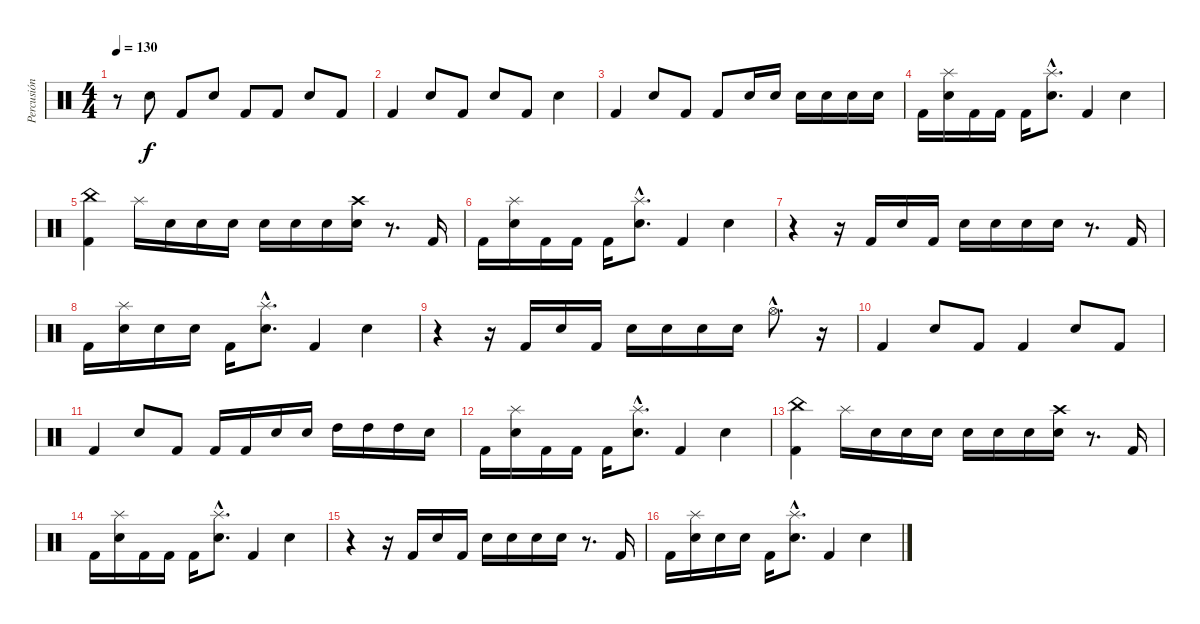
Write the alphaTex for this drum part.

\track ("Percusión" "Percusión") {instrument percussion}
\staff {score}
\articulation defaults
\ts (4 4)
\tempo 130
\clef neutral
\ks c
r.8{dy f} "Electric Snare (hit)".8 "Kick (hit) 2".8 "Electric Snare (hit)".8 "Kick (hit) 2".8 "Kick (hit) 2".8 "Electric Snare (hit)".8 "Kick (hit) 2".8 |
"Kick (hit) 2".4 "Electric Snare (hit)".8 "Kick (hit) 2".8 "Electric Snare (hit)".8 "Kick (hit) 2".8 "Electric Snare (hit)".4 |
"Kick (hit) 2".4 "Electric Snare (hit)".8 "Kick (hit) 2".8 "Kick (hit) 2".8 "Electric Snare (hit)".16 "Electric Snare (hit)".16 "Electric Snare (hit)".16 "Electric Snare (hit)".16 "Electric Snare (hit)".16 "Electric Snare (hit)".16 |
"Kick (hit) 2".16 ("Splash (hit)" "Electric Snare (hit)").16 "Kick (hit) 2".16 "Kick (hit) 2".16 "Kick (hit) 2".16 ("Splash (hit)"{hac} "Electric Snare (hit)"{hac}).8{d} "Kick (hit) 2".4 "Electric Snare (hit)".4 |
("China (hit)" "Kick (hit) 2").4 "Splash (hit)".16 "Electric Snare (hit)".16 "Electric Snare (hit)".16 "Electric Snare (hit)".16 "Electric Snare (hit)".16 "Electric Snare (hit)".16 "Electric Snare (hit)".16 ("Crash high (hit)" "Electric Snare (hit)").16 r.8{d} "Kick (hit) 2".16 |
"Kick (hit) 2".16 ("Splash (hit)" "Electric Snare (hit)").16 "Kick (hit) 2".16 "Kick (hit) 2".16 "Kick (hit) 2".16 ("Splash (hit)"{hac} "Electric Snare (hit)"{hac}).8{d} "Kick (hit) 2".4 "Electric Snare (hit)".4 |
r.4 r.16 "Kick (hit) 2".16 "Electric Snare (hit)".16 "Kick (hit) 2".16 "Electric Snare (hit)".16 "Electric Snare (hit)".16 "Electric Snare (hit)".16 "Electric Snare (hit)".16 r.8{d} "Kick (hit) 2".16 |
"Kick (hit) 2".16 ("Splash (hit)" "Electric Snare (hit)").16 "Electric Snare (hit)".16 "Electric Snare (hit)".16 "Kick (hit) 2".16 ("Splash (hit)"{hac} "Electric Snare (hit)"{hac}).8{d} "Kick (hit) 2".4 "Electric Snare (hit)".4 |
r.4 r.16 "Kick (hit) 2".16 "Electric Snare (hit)".16 "Kick (hit) 2".16 "Electric Snare (hit)".16 "Electric Snare (hit)".16 "Electric Snare (hit)".16 "Electric Snare (hit)".16 "Hi-Hat (open)"{hac}.8{d} r.16 |
"Kick (hit) 2".4 "Electric Snare (hit)".8 "Kick (hit) 2".8 "Kick (hit) 2".4 "Electric Snare (hit)".8 "Kick (hit) 2".8 |
"Kick (hit) 2".4 "Electric Snare (hit)".8 "Kick (hit) 2".8 "Kick (hit) 2".16 "Kick (hit) 2".16 "Electric Snare (hit)".16 "Electric Snare (hit)".16 "High Tom (hit)".16 "High Tom (hit)".16 "High Tom (hit)".16 "Electric Snare (hit)".16 |
"Kick (hit) 2".16 ("Splash (hit)" "Electric Snare (hit)").16 "Kick (hit) 2".16 "Kick (hit) 2".16 "Kick (hit) 2".16 ("Splash (hit)"{hac} "Electric Snare (hit)"{hac}).8{d} "Kick (hit) 2".4 "Electric Snare (hit)".4 |
("China (hit)" "Kick (hit) 2").4 "Splash (hit)".16 "Electric Snare (hit)".16 "Electric Snare (hit)".16 "Electric Snare (hit)".16 "Electric Snare (hit)".16 "Electric Snare (hit)".16 "Electric Snare (hit)".16 ("Crash high (hit)" "Electric Snare (hit)").16 r.8{d} "Kick (hit) 2".16 |
"Kick (hit) 2".16 ("Splash (hit)" "Electric Snare (hit)").16 "Kick (hit) 2".16 "Kick (hit) 2".16 "Kick (hit) 2".16 ("Splash (hit)"{hac} "Electric Snare (hit)"{hac}).8{d} "Kick (hit) 2".4 "Electric Snare (hit)".4 |
r.4 r.16 "Kick (hit) 2".16 "Electric Snare (hit)".16 "Kick (hit) 2".16 "Electric Snare (hit)".16 "Electric Snare (hit)".16 "Electric Snare (hit)".16 "Electric Snare (hit)".16 r.8{d} "Kick (hit) 2".16 |
"Kick (hit) 2".16 ("Splash (hit)" "Electric Snare (hit)").16 "Electric Snare (hit)".16 "Electric Snare (hit)".16 "Kick (hit) 2".16 ("Splash (hit)"{hac} "Electric Snare (hit)"{hac}).8{d} "Kick (hit) 2".4 "Electric Snare (hit)".4
